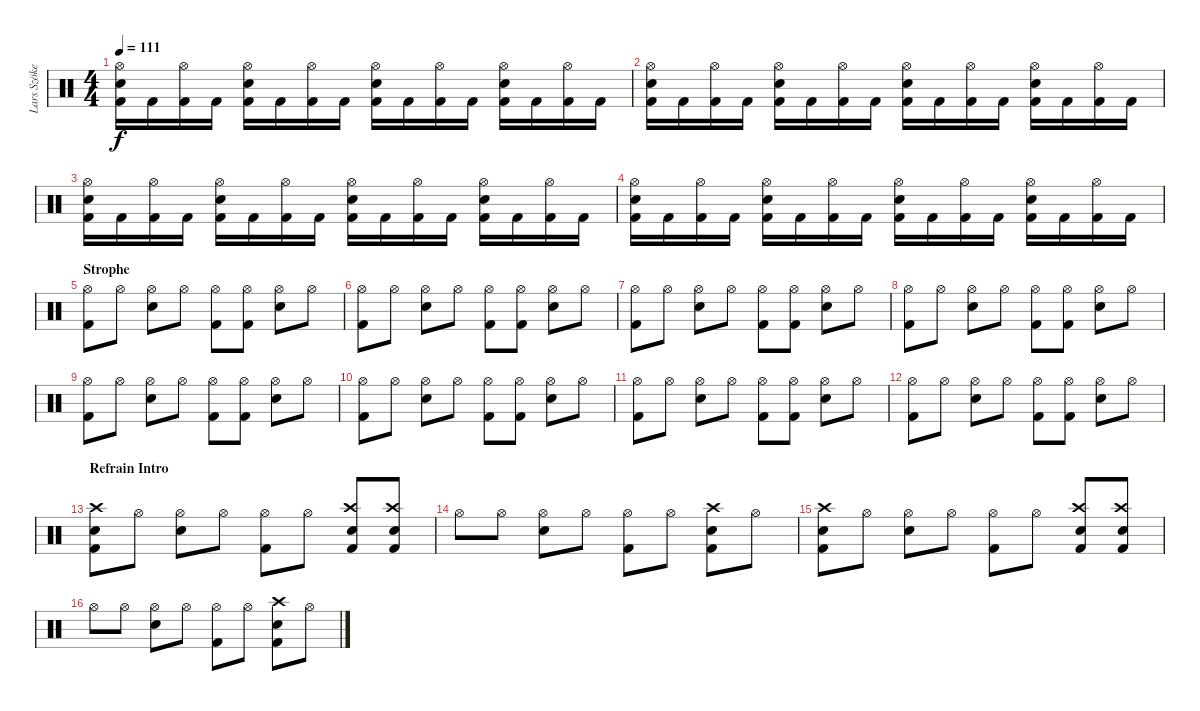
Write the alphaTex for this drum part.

\track ("Lars Szöke/Horgh" "Lars Szöke") {instrument percussion}
\staff {score}
\articulation defaults
\ts (4 4)
\tempo 111
\clef neutral
\ks c
("Hi-Hat (open)" "Snare (hit) 2" "Kick (hit) 2").16{dy f} "Kick (hit) 2".16 ("Hi-Hat (open)" "Kick (hit) 2").16 "Kick (hit) 2".16 ("Hi-Hat (open)" "Snare (hit) 2" "Kick (hit) 2").16 "Kick (hit) 2".16 ("Hi-Hat (open)" "Kick (hit) 2").16 "Kick (hit) 2".16 ("Hi-Hat (open)" "Snare (hit) 2" "Kick (hit) 2").16 "Kick (hit) 2".16 ("Hi-Hat (open)" "Kick (hit) 2").16 "Kick (hit) 2".16 ("Hi-Hat (open)" "Snare (hit) 2" "Kick (hit) 2").16 "Kick (hit) 2".16 ("Hi-Hat (open)" "Kick (hit) 2").16 "Kick (hit) 2".16 |
("Hi-Hat (open)" "Snare (hit) 2" "Kick (hit) 2").16 "Kick (hit) 2".16 ("Hi-Hat (open)" "Kick (hit) 2").16 "Kick (hit) 2".16 ("Hi-Hat (open)" "Snare (hit) 2" "Kick (hit) 2").16 "Kick (hit) 2".16 ("Hi-Hat (open)" "Kick (hit) 2").16 "Kick (hit) 2".16 ("Hi-Hat (open)" "Snare (hit) 2" "Kick (hit) 2").16 "Kick (hit) 2".16 ("Hi-Hat (open)" "Kick (hit) 2").16 "Kick (hit) 2".16 ("Hi-Hat (open)" "Snare (hit) 2" "Kick (hit) 2").16 "Kick (hit) 2".16 ("Hi-Hat (open)" "Kick (hit) 2").16 "Kick (hit) 2".16 |
("Hi-Hat (open)" "Snare (hit) 2" "Kick (hit) 2").16 "Kick (hit) 2".16 ("Hi-Hat (open)" "Kick (hit) 2").16 "Kick (hit) 2".16 ("Hi-Hat (open)" "Snare (hit) 2" "Kick (hit) 2").16 "Kick (hit) 2".16 ("Hi-Hat (open)" "Kick (hit) 2").16 "Kick (hit) 2".16 ("Hi-Hat (open)" "Snare (hit) 2" "Kick (hit) 2").16 "Kick (hit) 2".16 ("Hi-Hat (open)" "Kick (hit) 2").16 "Kick (hit) 2".16 ("Hi-Hat (open)" "Snare (hit) 2" "Kick (hit) 2").16 "Kick (hit) 2".16 ("Hi-Hat (open)" "Kick (hit) 2").16 "Kick (hit) 2".16 |
("Hi-Hat (open)" "Snare (hit) 2" "Kick (hit) 2").16 "Kick (hit) 2".16 ("Hi-Hat (open)" "Kick (hit) 2").16 "Kick (hit) 2".16 ("Hi-Hat (open)" "Snare (hit) 2" "Kick (hit) 2").16 "Kick (hit) 2".16 ("Hi-Hat (open)" "Kick (hit) 2").16 "Kick (hit) 2".16 ("Hi-Hat (open)" "Snare (hit) 2" "Kick (hit) 2").16 "Kick (hit) 2".16 ("Hi-Hat (open)" "Kick (hit) 2").16 "Kick (hit) 2".16 ("Hi-Hat (open)" "Snare (hit) 2" "Kick (hit) 2").16 "Kick (hit) 2".16 ("Hi-Hat (open)" "Kick (hit) 2").16 "Kick (hit) 2".16 |
\section ("" "Strophe")
("Hi-Hat (open)" "Kick (hit) 2").8 "Hi-Hat (open)".8 ("Hi-Hat (open)" "Snare (hit) 2").8 "Hi-Hat (open)".8 ("Hi-Hat (open)" "Kick (hit) 2").8 ("Hi-Hat (open)" "Kick (hit) 2").8 ("Hi-Hat (open)" "Snare (hit) 2").8 "Hi-Hat (open)".8 |
("Hi-Hat (open)" "Kick (hit) 2").8 "Hi-Hat (open)".8 ("Hi-Hat (open)" "Snare (hit) 2").8 "Hi-Hat (open)".8 ("Hi-Hat (open)" "Kick (hit) 2").8 ("Hi-Hat (open)" "Kick (hit) 2").8 ("Hi-Hat (open)" "Snare (hit) 2").8 "Hi-Hat (open)".8 |
("Hi-Hat (open)" "Kick (hit) 2").8 "Hi-Hat (open)".8 ("Hi-Hat (open)" "Snare (hit) 2").8 "Hi-Hat (open)".8 ("Hi-Hat (open)" "Kick (hit) 2").8 ("Hi-Hat (open)" "Kick (hit) 2").8 ("Hi-Hat (open)" "Snare (hit) 2").8 "Hi-Hat (open)".8 |
("Hi-Hat (open)" "Kick (hit) 2").8 "Hi-Hat (open)".8 ("Hi-Hat (open)" "Snare (hit) 2").8 "Hi-Hat (open)".8 ("Hi-Hat (open)" "Kick (hit) 2").8 ("Hi-Hat (open)" "Kick (hit) 2").8 ("Hi-Hat (open)" "Snare (hit) 2").8 "Hi-Hat (open)".8 |
("Hi-Hat (open)" "Kick (hit) 2").8 "Hi-Hat (open)".8 ("Hi-Hat (open)" "Snare (hit) 2").8 "Hi-Hat (open)".8 ("Hi-Hat (open)" "Kick (hit) 2").8 ("Hi-Hat (open)" "Kick (hit) 2").8 ("Hi-Hat (open)" "Snare (hit) 2").8 "Hi-Hat (open)".8 |
("Hi-Hat (open)" "Kick (hit) 2").8 "Hi-Hat (open)".8 ("Hi-Hat (open)" "Snare (hit) 2").8 "Hi-Hat (open)".8 ("Hi-Hat (open)" "Kick (hit) 2").8 ("Hi-Hat (open)" "Kick (hit) 2").8 ("Hi-Hat (open)" "Snare (hit) 2").8 "Hi-Hat (open)".8 |
("Hi-Hat (open)" "Kick (hit) 2").8 "Hi-Hat (open)".8 ("Hi-Hat (open)" "Snare (hit) 2").8 "Hi-Hat (open)".8 ("Hi-Hat (open)" "Kick (hit) 2").8 ("Hi-Hat (open)" "Kick (hit) 2").8 ("Hi-Hat (open)" "Snare (hit) 2").8 "Hi-Hat (open)".8 |
("Hi-Hat (open)" "Kick (hit) 2").8 "Hi-Hat (open)".8 ("Hi-Hat (open)" "Snare (hit) 2").8 "Hi-Hat (open)".8 ("Hi-Hat (open)" "Kick (hit) 2").8 ("Hi-Hat (open)" "Kick (hit) 2").8 ("Hi-Hat (open)" "Snare (hit) 2").8 "Hi-Hat (open)".8 |
\section ("" "Refrain Intro")
("Crash high (hit)" "Electric Snare (hit)" "Kick (hit) 2").8 "Hi-Hat (open)".8 ("Hi-Hat (open)" "Snare (hit) 2").8 "Hi-Hat (open)".8 ("Hi-Hat (open)" "Kick (hit) 2").8 "Hi-Hat (open)".8 ("Crash high (hit)" "Electric Snare (hit)" "Kick (hit) 2").8 ("Crash high (hit)" "Electric Snare (hit)" "Kick (hit) 2").8 |
"Hi-Hat (open)".8 "Hi-Hat (open)".8 ("Hi-Hat (open)" "Snare (hit) 2").8 "Hi-Hat (open)".8 ("Hi-Hat (open)" "Kick (hit) 2").8 "Hi-Hat (open)".8 ("Crash high (hit)" "Electric Snare (hit)" "Kick (hit) 2").8 "Hi-Hat (open)".8 |
("Crash high (hit)" "Electric Snare (hit)" "Kick (hit) 2").8 "Hi-Hat (open)".8 ("Hi-Hat (open)" "Snare (hit) 2").8 "Hi-Hat (open)".8 ("Hi-Hat (open)" "Kick (hit) 2").8 "Hi-Hat (open)".8 ("Crash high (hit)" "Electric Snare (hit)" "Kick (hit) 2").8 ("Crash high (hit)" "Electric Snare (hit)" "Kick (hit) 2").8 |
"Hi-Hat (open)".8 "Hi-Hat (open)".8 ("Hi-Hat (open)" "Snare (hit) 2").8 "Hi-Hat (open)".8 ("Hi-Hat (open)" "Kick (hit) 2").8 "Hi-Hat (open)".8 ("Crash high (hit)" "Electric Snare (hit)" "Kick (hit) 2").8 "Hi-Hat (open)".8
